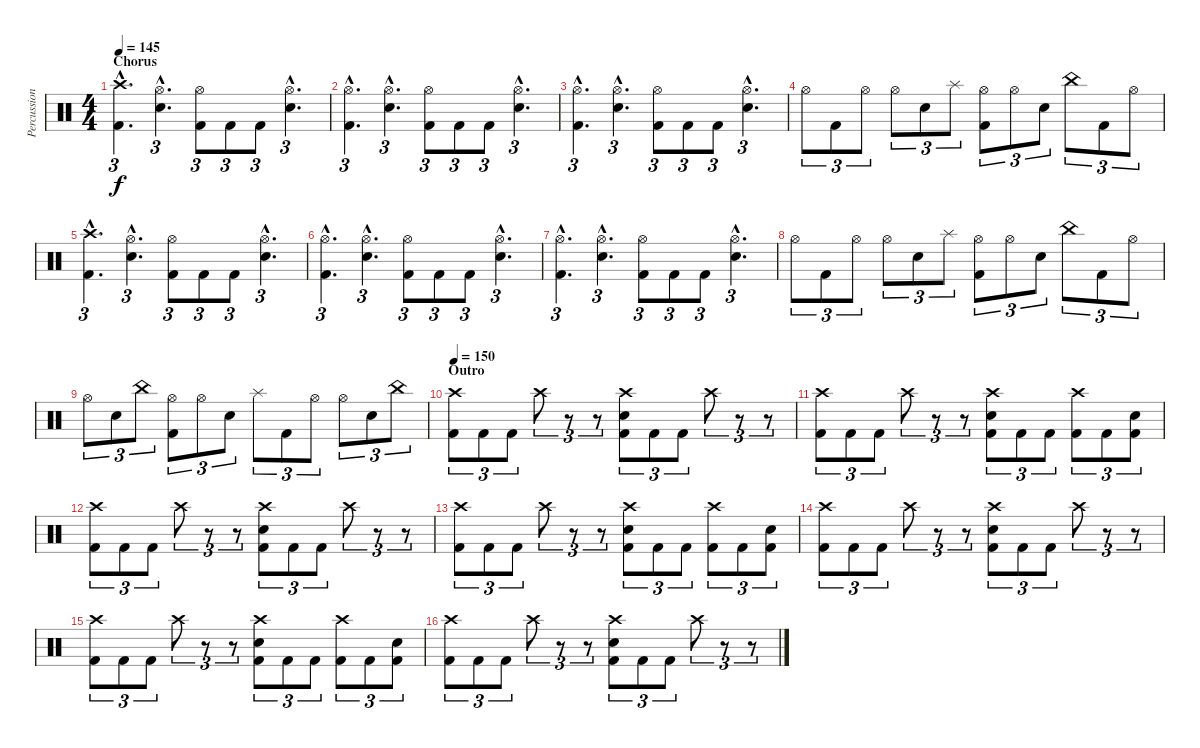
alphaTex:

\track ("Percussion" "Percussion") {instrument percussion}
\staff {score}
\articulation defaults
\ts (4 4)
\section ("" "Chorus")
\tempo 145
\clef neutral
\ks c
("Crash high (hit)"{hac} "Kick (hit) 2"{hac}).4{d tu (3 2) dy f} ("Hi-Hat (open)"{hac} "Electric Snare (hit)"{hac}).4{d tu (3 2)} ("Hi-Hat (open)" "Kick (hit) 2").8{tu (3 2)} "Kick (hit) 2".8{tu (3 2)} "Kick (hit) 2".8{tu (3 2)} ("Hi-Hat (open)"{hac} "Electric Snare (hit)"{hac}).4{d tu (3 2)} |
("Hi-Hat (open)"{hac} "Kick (hit) 2"{hac}).4{d tu (3 2)} ("Hi-Hat (open)"{hac} "Electric Snare (hit)"{hac}).4{d tu (3 2)} ("Hi-Hat (open)" "Kick (hit) 2").8{tu (3 2)} "Kick (hit) 2".8{tu (3 2)} "Kick (hit) 2".8{tu (3 2)} ("Hi-Hat (open)"{hac} "Electric Snare (hit)"{hac}).4{d tu (3 2)} |
("Hi-Hat (open)"{hac} "Kick (hit) 2"{hac}).4{d tu (3 2)} ("Hi-Hat (open)"{hac} "Electric Snare (hit)"{hac}).4{d tu (3 2)} ("Hi-Hat (open)" "Kick (hit) 2").8{tu (3 2)} "Kick (hit) 2".8{tu (3 2)} "Kick (hit) 2".8{tu (3 2)} ("Hi-Hat (open)"{hac} "Electric Snare (hit)"{hac}).4{d tu (3 2)} |
"Hi-Hat (open)".8{tu (3 2)} "Kick (hit) 2".8{tu (3 2)} "Hi-Hat (open)".8{tu (3 2)} "Hi-Hat (open)".8{tu (3 2)} "Electric Snare (hit)".8{tu (3 2)} "Splash (hit)".8{tu (3 2)} ("Hi-Hat (open)" "Kick (hit) 2").8{tu (3 2)} "Hi-Hat (open)".8{tu (3 2)} "Electric Snare (hit)".8{tu (3 2)} "China (hit)".8{tu (3 2)} "Kick (hit) 2".8{tu (3 2)} "Hi-Hat (open)".8{tu (3 2)} |
("Crash high (hit)"{hac} "Kick (hit) 2"{hac}).4{d tu (3 2)} ("Hi-Hat (open)"{hac} "Electric Snare (hit)"{hac}).4{d tu (3 2)} ("Hi-Hat (open)" "Kick (hit) 2").8{tu (3 2)} "Kick (hit) 2".8{tu (3 2)} "Kick (hit) 2".8{tu (3 2)} ("Hi-Hat (open)"{hac} "Electric Snare (hit)"{hac}).4{d tu (3 2)} |
("Hi-Hat (open)"{hac} "Kick (hit) 2"{hac}).4{d tu (3 2)} ("Hi-Hat (open)"{hac} "Electric Snare (hit)"{hac}).4{d tu (3 2)} ("Hi-Hat (open)" "Kick (hit) 2").8{tu (3 2)} "Kick (hit) 2".8{tu (3 2)} "Kick (hit) 2".8{tu (3 2)} ("Hi-Hat (open)"{hac} "Electric Snare (hit)"{hac}).4{d tu (3 2)} |
("Hi-Hat (open)"{hac} "Kick (hit) 2"{hac}).4{d tu (3 2)} ("Hi-Hat (open)"{hac} "Electric Snare (hit)"{hac}).4{d tu (3 2)} ("Hi-Hat (open)" "Kick (hit) 2").8{tu (3 2)} "Kick (hit) 2".8{tu (3 2)} "Kick (hit) 2".8{tu (3 2)} ("Hi-Hat (open)"{hac} "Electric Snare (hit)"{hac}).4{d tu (3 2)} |
"Hi-Hat (open)".8{tu (3 2)} "Kick (hit) 2".8{tu (3 2)} "Hi-Hat (open)".8{tu (3 2)} "Hi-Hat (open)".8{tu (3 2)} "Electric Snare (hit)".8{tu (3 2)} "Splash (hit)".8{tu (3 2)} ("Hi-Hat (open)" "Kick (hit) 2").8{tu (3 2)} "Hi-Hat (open)".8{tu (3 2)} "Electric Snare (hit)".8{tu (3 2)} "China (hit)".8{tu (3 2)} "Kick (hit) 2".8{tu (3 2)} "Hi-Hat (open)".8{tu (3 2)} |
"Hi-Hat (open)".8{tu (3 2)} "Electric Snare (hit)".8{tu (3 2)} "China (hit)".8{tu (3 2)} ("Hi-Hat (open)" "Kick (hit) 2").8{tu (3 2)} "Hi-Hat (open)".8{tu (3 2)} "Electric Snare (hit)".8{tu (3 2)} "Splash (hit)".8{tu (3 2)} "Kick (hit) 2".8{tu (3 2)} "Hi-Hat (open)".8{tu (3 2)} "Hi-Hat (open)".8{tu (3 2)} "Electric Snare (hit)".8{tu (3 2)} "China (hit)".8{tu (3 2)} |
\section ("" "Outro")
\tempo 150
("Crash high (hit)" "Kick (hit) 2").8{tu (3 2)} "Kick (hit) 2".8{tu (3 2)} "Kick (hit) 2".8{tu (3 2)} "Crash high (hit)".8{tu (3 2)} r.8{tu (3 2)} r.8{tu (3 2)} ("Crash high (hit)" "Electric Snare (hit)" "Kick (hit) 2").8{tu (3 2)} "Kick (hit) 2".8{tu (3 2)} "Kick (hit) 2".8{tu (3 2)} "Crash high (hit)".8{tu (3 2)} r.8{tu (3 2)} r.8{tu (3 2)} |
("Crash high (hit)" "Kick (hit) 2").8{tu (3 2)} "Kick (hit) 2".8{tu (3 2)} "Kick (hit) 2".8{tu (3 2)} "Crash high (hit)".8{tu (3 2)} r.8{tu (3 2)} r.8{tu (3 2)} ("Crash high (hit)" "Electric Snare (hit)" "Kick (hit) 2").8{tu (3 2)} "Kick (hit) 2".8{tu (3 2)} "Kick (hit) 2".8{tu (3 2)} ("Crash high (hit)" "Kick (hit) 2").8{tu (3 2)} "Kick (hit) 2".8{tu (3 2)} ("Electric Snare (hit)" "Kick (hit) 2").8{tu (3 2)} |
("Crash high (hit)" "Kick (hit) 2").8{tu (3 2)} "Kick (hit) 2".8{tu (3 2)} "Kick (hit) 2".8{tu (3 2)} "Crash high (hit)".8{tu (3 2)} r.8{tu (3 2)} r.8{tu (3 2)} ("Crash high (hit)" "Electric Snare (hit)" "Kick (hit) 2").8{tu (3 2)} "Kick (hit) 2".8{tu (3 2)} "Kick (hit) 2".8{tu (3 2)} "Crash high (hit)".8{tu (3 2)} r.8{tu (3 2)} r.8{tu (3 2)} |
("Crash high (hit)" "Kick (hit) 2").8{tu (3 2)} "Kick (hit) 2".8{tu (3 2)} "Kick (hit) 2".8{tu (3 2)} "Crash high (hit)".8{tu (3 2)} r.8{tu (3 2)} r.8{tu (3 2)} ("Crash high (hit)" "Electric Snare (hit)" "Kick (hit) 2").8{tu (3 2)} "Kick (hit) 2".8{tu (3 2)} "Kick (hit) 2".8{tu (3 2)} ("Crash high (hit)" "Kick (hit) 2").8{tu (3 2)} "Kick (hit) 2".8{tu (3 2)} ("Electric Snare (hit)" "Kick (hit) 2").8{tu (3 2)} |
("Crash high (hit)" "Kick (hit) 2").8{tu (3 2)} "Kick (hit) 2".8{tu (3 2)} "Kick (hit) 2".8{tu (3 2)} "Crash high (hit)".8{tu (3 2)} r.8{tu (3 2)} r.8{tu (3 2)} ("Crash high (hit)" "Electric Snare (hit)" "Kick (hit) 2").8{tu (3 2)} "Kick (hit) 2".8{tu (3 2)} "Kick (hit) 2".8{tu (3 2)} "Crash high (hit)".8{tu (3 2)} r.8{tu (3 2)} r.8{tu (3 2)} |
("Crash high (hit)" "Kick (hit) 2").8{tu (3 2)} "Kick (hit) 2".8{tu (3 2)} "Kick (hit) 2".8{tu (3 2)} "Crash high (hit)".8{tu (3 2)} r.8{tu (3 2)} r.8{tu (3 2)} ("Crash high (hit)" "Electric Snare (hit)" "Kick (hit) 2").8{tu (3 2)} "Kick (hit) 2".8{tu (3 2)} "Kick (hit) 2".8{tu (3 2)} ("Crash high (hit)" "Kick (hit) 2").8{tu (3 2)} "Kick (hit) 2".8{tu (3 2)} ("Electric Snare (hit)" "Kick (hit) 2").8{tu (3 2)} |
("Crash high (hit)" "Kick (hit) 2").8{tu (3 2)} "Kick (hit) 2".8{tu (3 2)} "Kick (hit) 2".8{tu (3 2)} "Crash high (hit)".8{tu (3 2)} r.8{tu (3 2)} r.8{tu (3 2)} ("Crash high (hit)" "Electric Snare (hit)" "Kick (hit) 2").8{tu (3 2)} "Kick (hit) 2".8{tu (3 2)} "Kick (hit) 2".8{tu (3 2)} "Crash high (hit)".8{tu (3 2)} r.8{tu (3 2)} r.8{tu (3 2)}
